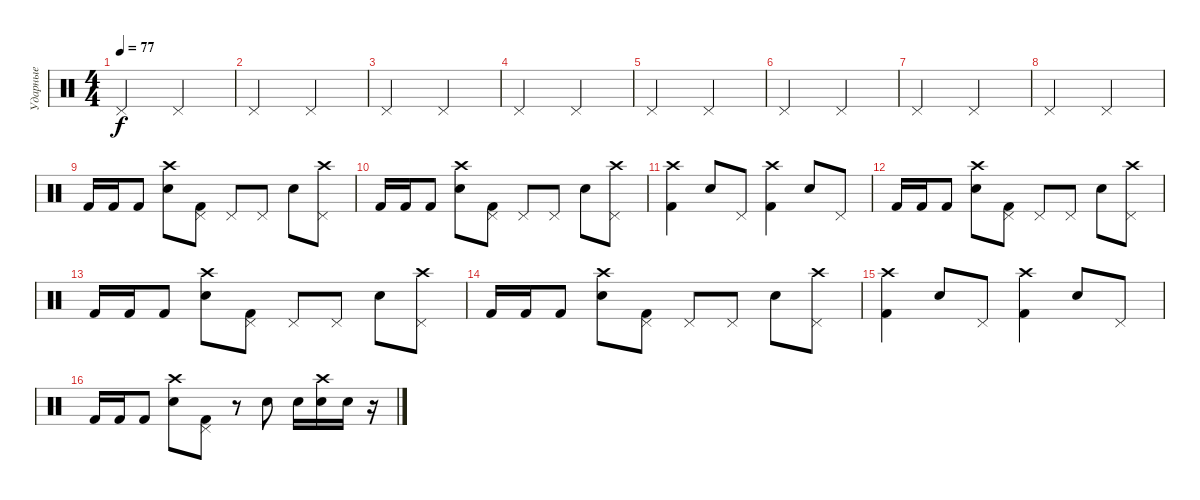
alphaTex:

\track ("Ударные" "Ударные") {instrument percussion}
\staff {score}
\articulation defaults
\ts (4 4)
\tempo 77
\clef neutral
\ks c "Pedal Hi-Hat (hit)".2{dy f} "Pedal Hi-Hat (hit)".2
|
"Pedal Hi-Hat (hit)".2 "Pedal Hi-Hat (hit)".2 |
"Pedal Hi-Hat (hit)".2 "Pedal Hi-Hat (hit)".2 |
"Pedal Hi-Hat (hit)".2 "Pedal Hi-Hat (hit)".2 |
"Pedal Hi-Hat (hit)".2 "Pedal Hi-Hat (hit)".2 |
"Pedal Hi-Hat (hit)".2 "Pedal Hi-Hat (hit)".2 |
"Pedal Hi-Hat (hit)".2 "Pedal Hi-Hat (hit)".2 |
"Pedal Hi-Hat (hit)".2 "Pedal Hi-Hat (hit)".2 |
"Kick (hit) 2".16 "Kick (hit) 2".16 "Kick (hit) 2".8 ("Snare (hit) 2" "Crash high (hit)").8 ("Kick (hit) 2" "Pedal Hi-Hat (hit)").8 "Pedal Hi-Hat (hit)".8 "Pedal Hi-Hat (hit)".8 "Snare (hit) 2".8 ("Pedal Hi-Hat (hit)" "Crash high (hit)").8 |
"Kick (hit) 2".16 "Kick (hit) 2".16 "Kick (hit) 2".8 ("Snare (hit) 2" "Crash high (hit)").8 ("Kick (hit) 2" "Pedal Hi-Hat (hit)").8 "Pedal Hi-Hat (hit)".8 "Pedal Hi-Hat (hit)".8 "Snare (hit) 2".8 ("Pedal Hi-Hat (hit)" "Crash high (hit)").8 |
("Kick (hit) 2" "Crash high (hit)").4 "Snare (hit) 2".8 "Pedal Hi-Hat (hit)".8 ("Kick (hit) 2" "Crash high (hit)").4 "Snare (hit) 2".8 "Pedal Hi-Hat (hit)".8 |
"Kick (hit) 2".16 "Kick (hit) 2".16 "Kick (hit) 2".8 ("Snare (hit) 2" "Crash high (hit)").8 ("Kick (hit) 2" "Pedal Hi-Hat (hit)").8 "Pedal Hi-Hat (hit)".8 "Pedal Hi-Hat (hit)".8 "Snare (hit) 2".8 ("Pedal Hi-Hat (hit)" "Crash high (hit)").8 |
"Kick (hit) 2".16 "Kick (hit) 2".16 "Kick (hit) 2".8 ("Snare (hit) 2" "Crash high (hit)").8 ("Kick (hit) 2" "Pedal Hi-Hat (hit)").8 "Pedal Hi-Hat (hit)".8 "Pedal Hi-Hat (hit)".8 "Snare (hit) 2".8 ("Pedal Hi-Hat (hit)" "Crash high (hit)").8 |
"Kick (hit) 2".16 "Kick (hit) 2".16 "Kick (hit) 2".8 ("Snare (hit) 2" "Crash high (hit)").8 ("Kick (hit) 2" "Pedal Hi-Hat (hit)").8 "Pedal Hi-Hat (hit)".8 "Pedal Hi-Hat (hit)".8 "Snare (hit) 2".8 ("Pedal Hi-Hat (hit)" "Crash high (hit)").8 |
("Kick (hit) 2" "Crash high (hit)").4 "Snare (hit) 2".8 "Pedal Hi-Hat (hit)".8 ("Kick (hit) 2" "Crash high (hit)").4 "Snare (hit) 2".8 "Pedal Hi-Hat (hit)".8 |
"Kick (hit) 2".16 "Kick (hit) 2".16 "Kick (hit) 2".8 ("Snare (hit) 2" "Crash high (hit)").8 ("Kick (hit) 2" "Pedal Hi-Hat (hit)").8 r.8 "Snare (hit) 2".8 "Snare (hit) 2".16 ("Snare (hit) 2" "Crash high (hit)").16 "Snare (hit) 2".16 r.16
